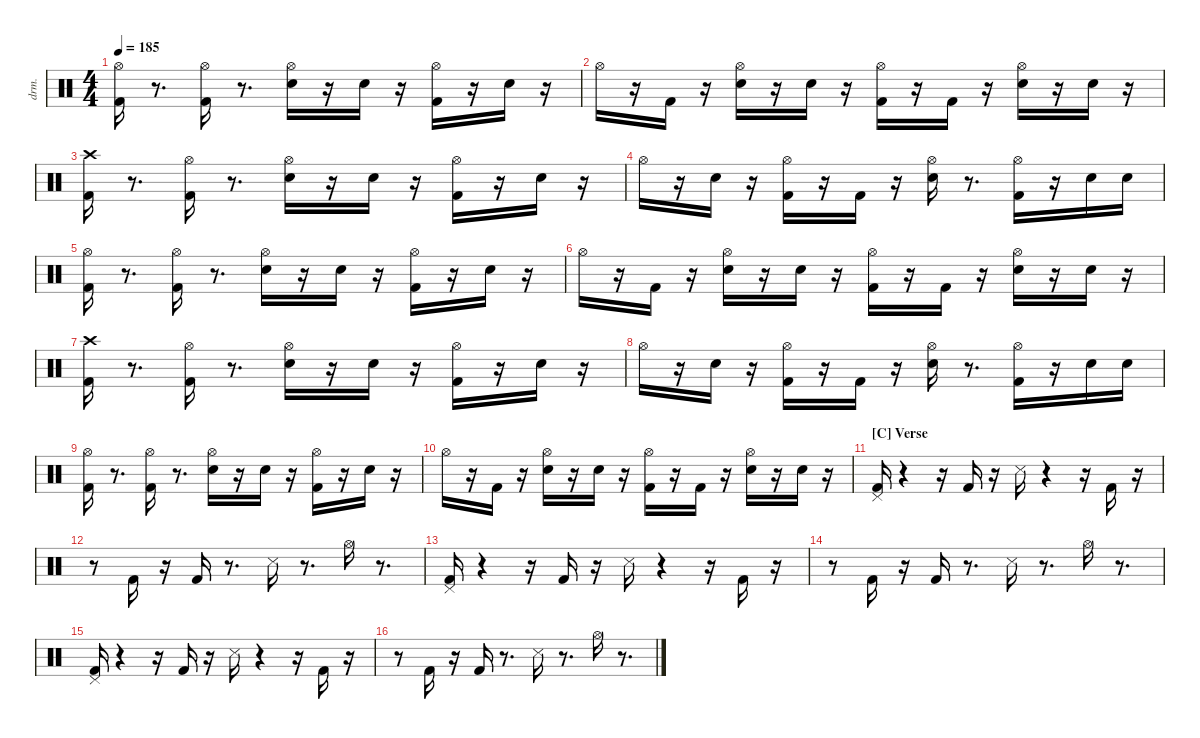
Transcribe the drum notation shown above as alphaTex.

\defaultSystemsLayout 4
\hideDynamics
\bracketExtendMode nobrackets
\otherSystemsTrackNameOrientation horizontal
\track ("drums" "drm.") {instrument percussion}
\staff {score}
\articulation defaults
\ts (4 4)
\tempo 185
\clef neutral
\ks aminor
("Kick (hit) 2" "Hi-Hat (open)"{acc #}).16{dy ff beam Down} r.8{d beam Down} ("Kick (hit) 2" "Hi-Hat (open)"{acc #}).16{beam Down} r.8{d beam Down} ("Snare (hit) 2" "Hi-Hat (open)"{acc #}).16{beam Down} r.16{beam Down} "Snare (hit) 2".16{dy p beam Down} r.16{beam Down} ("Kick (hit) 2" "Hi-Hat (open)"{acc #}).16{dy ff beam Down} r.16{beam Down} "Snare (hit) 2".16{dy f beam Down} r.16{beam Down} |
"Hi-Hat (open)"{acc #}.16{dy ff beam Down} r.16{beam Down} "Kick (hit) 2".16{beam Up} r.16{beam Up} ("Snare (hit) 2" "Hi-Hat (open)"{acc #}).16{beam Down} r.16{beam Down} "Snare (hit) 2".16{dy p beam Down} r.16{beam Down} ("Kick (hit) 2" "Hi-Hat (open)"{acc #}).16{dy mf beam Down} r.16{beam Down} "Kick (hit) 2".16{dy ff beam Up} r.16{beam Up} ("Snare (hit) 2" "Hi-Hat (open)"{acc #}).16{beam Down} r.16{beam Down} "Snare (hit) 2".16{beam Down} r.16{beam Down} |
("Kick (hit) 2" "Crash high (hit)"{acc #}).16{beam Down} r.8{d beam Down} ("Kick (hit) 2" "Hi-Hat (open)"{acc #}).16{beam Down} r.8{d beam Down} ("Snare (hit) 2" "Hi-Hat (open)"{acc #}).16{beam Down} r.16{beam Down} "Snare (hit) 2".16{dy p beam Down} r.16{beam Down} ("Kick (hit) 2" "Hi-Hat (open)"{acc #}).16{dy mf beam Down} r.16{beam Down} "Snare (hit) 2".16{dy ff beam Down} r.16{beam Down} |
"Hi-Hat (open)"{acc #}.16{dy f beam Down} r.16{beam Down} "Snare (hit) 2".16{dy ff beam Down} r.16{beam Down} ("Kick (hit) 2" "Hi-Hat (open)"{acc #}).16{dy f beam Down} r.16{beam Down} "Kick (hit) 2".16{dy ff beam Up} r.16{beam Up} ("Snare (hit) 2" "Hi-Hat (open)"{acc #}).16{beam Down} r.8{d beam Down} ("Kick (hit) 2" "Hi-Hat (open)"{acc #}).16{beam Down} r.16{beam Down} "Snare (hit) 2".16{dy mf beam Down} "Snare (hit) 2".16{dy pp beam Down} |
("Kick (hit) 2" "Hi-Hat (open)"{acc #}).16{dy ff beam Down} r.8{d beam Down} ("Kick (hit) 2" "Hi-Hat (open)"{acc #}).16{beam Down} r.8{d beam Down} ("Snare (hit) 2" "Hi-Hat (open)"{acc #}).16{beam Down} r.16{beam Down} "Snare (hit) 2".16{dy p beam Down} r.16{beam Down} ("Kick (hit) 2" "Hi-Hat (open)"{acc #}).16{dy ff beam Down} r.16{beam Down} "Snare (hit) 2".16{dy f beam Down} r.16{beam Down} |
"Hi-Hat (open)"{acc #}.16{dy ff beam Down} r.16{beam Down} "Kick (hit) 2".16{beam Up} r.16{beam Up} ("Snare (hit) 2" "Hi-Hat (open)"{acc #}).16{beam Down} r.16{beam Down} "Snare (hit) 2".16{dy p beam Down} r.16{beam Down} ("Kick (hit) 2" "Hi-Hat (open)"{acc #}).16{dy ff beam Down} r.16{beam Down} "Kick (hit) 2".16{beam Up} r.16{beam Up} ("Snare (hit) 2" "Hi-Hat (open)"{acc #}).16{beam Down} r.16{beam Down} "Snare (hit) 2".16{beam Down} r.16{beam Down} |
("Kick (hit) 2" "Crash high (hit)"{acc #}).16{beam Down} r.8{d beam Down} ("Kick (hit) 2" "Hi-Hat (open)"{acc #}).16{beam Down} r.8{d beam Down} ("Snare (hit) 2" "Hi-Hat (open)"{acc #}).16{beam Down} r.16{beam Down} "Snare (hit) 2".16{dy p beam Down} r.16{beam Down} ("Kick (hit) 2" "Hi-Hat (open)"{acc #}).16{dy ff beam Down} r.16{beam Down} "Snare (hit) 2".16{beam Down} r.16{beam Down} |
"Hi-Hat (open)"{acc #}.16{dy f beam Down} r.16{beam Down} "Snare (hit) 2".16{dy ff beam Down} r.16{beam Down} ("Kick (hit) 2" "Hi-Hat (open)"{acc #}).16{dy f beam Down} r.16{beam Down} "Kick (hit) 2".16{dy ff beam Up} r.16{beam Up} ("Snare (hit) 2" "Hi-Hat (open)"{acc #}).16{beam Down} r.8{d beam Down} ("Kick (hit) 2" "Hi-Hat (open)"{acc #}).16{beam Down} r.16{beam Down} "Snare (hit) 2".16{dy mf beam Down} "Snare (hit) 2".16{dy pp beam Down} |
("Kick (hit) 2" "Hi-Hat (open)"{acc #}).16{dy ff beam Down} r.8{d beam Down} ("Kick (hit) 2" "Hi-Hat (open)"{acc #}).16{beam Down} r.8{d beam Down} ("Snare (hit) 2" "Hi-Hat (open)"{acc #}).16{beam Down} r.16{beam Down} "Snare (hit) 2".16{dy p beam Down} r.16{beam Down} ("Kick (hit) 2" "Hi-Hat (open)"{acc #}).16{dy f beam Down} r.16{beam Down} "Snare (hit) 2".16{beam Down} r.16{beam Down} |
"Hi-Hat (open)"{acc #}.16{dy ff beam Down} r.16{beam Down} "Kick (hit) 2".16{beam Up} r.16{beam Up} ("Snare (hit) 2" "Hi-Hat (open)"{acc #}).16{beam Down} r.16{beam Down} "Snare (hit) 2".16{dy p beam Down} r.16{beam Down} ("Kick (hit) 2" "Hi-Hat (open)"{acc #}).16{dy mf beam Down} r.16{beam Down} "Kick (hit) 2".16{dy ff beam Up} r.16{beam Up} ("Snare (hit) 2" "Hi-Hat (open)"{acc #}).16{beam Down} r.16{beam Down} "Snare (hit) 2".16{dy mf beam Down} r.16{beam Down} |
\section ("C" "Verse")
("Kick (hit) 2" "Pedal Hi-Hat (hit)"{acc #}).16{dy fff beam Up} r.4{beam Up} r.16{beam Up} "Kick (hit) 2".16{dy ff beam Up} r.16{beam Up} "Snare (side stick) 3"{acc #}.16{beam Down} r.4{beam Down} r.16{beam Down} "Kick (hit) 2".16{beam Up} r.16{beam Up} |
r.8{beam Down} "Kick (hit) 2".16{dy f beam Up} r.16{beam Up} "Kick (hit) 2".16{dy ff beam Up} r.8{d beam Up} "Snare (side stick) 3"{acc #}.16{beam Down} r.8{d beam Down} "Hi-Hat (open)"{acc #}.16{beam Down} r.8{d beam Down} |
("Kick (hit) 2" "Pedal Hi-Hat (hit)"{acc #}).16{dy fff beam Up} r.4{beam Up} r.16{beam Up} "Kick (hit) 2".16{dy ff beam Up} r.16{beam Up} "Snare (side stick) 3"{acc #}.16{beam Down} r.4{beam Down} r.16{beam Down} "Kick (hit) 2".16{beam Up} r.16{beam Up} |
r.8{beam Down} "Kick (hit) 2".16{dy f beam Up} r.16{beam Up} "Kick (hit) 2".16{dy ff beam Up} r.8{d beam Up} "Snare (side stick) 3"{acc #}.16{beam Down} r.8{d beam Down} "Hi-Hat (open)"{acc #}.16{beam Down} r.8{d beam Down} |
("Kick (hit) 2" "Pedal Hi-Hat (hit)"{acc #}).16{dy fff beam Up} r.4{beam Up} r.16{beam Up} "Kick (hit) 2".16{dy ff beam Up} r.16{beam Up} "Snare (side stick) 3"{acc #}.16{beam Down} r.4{beam Down} r.16{beam Down} "Kick (hit) 2".16{beam Up} r.16{beam Up} |
r.8{beam Down} "Kick (hit) 2".16{dy f beam Up} r.16{beam Up} "Kick (hit) 2".16{dy ff beam Up} r.8{d beam Up} "Snare (side stick) 3"{acc #}.16{beam Down} r.8{d beam Down} "Hi-Hat (open)"{acc #}.16{beam Down} r.8{d beam Down}
